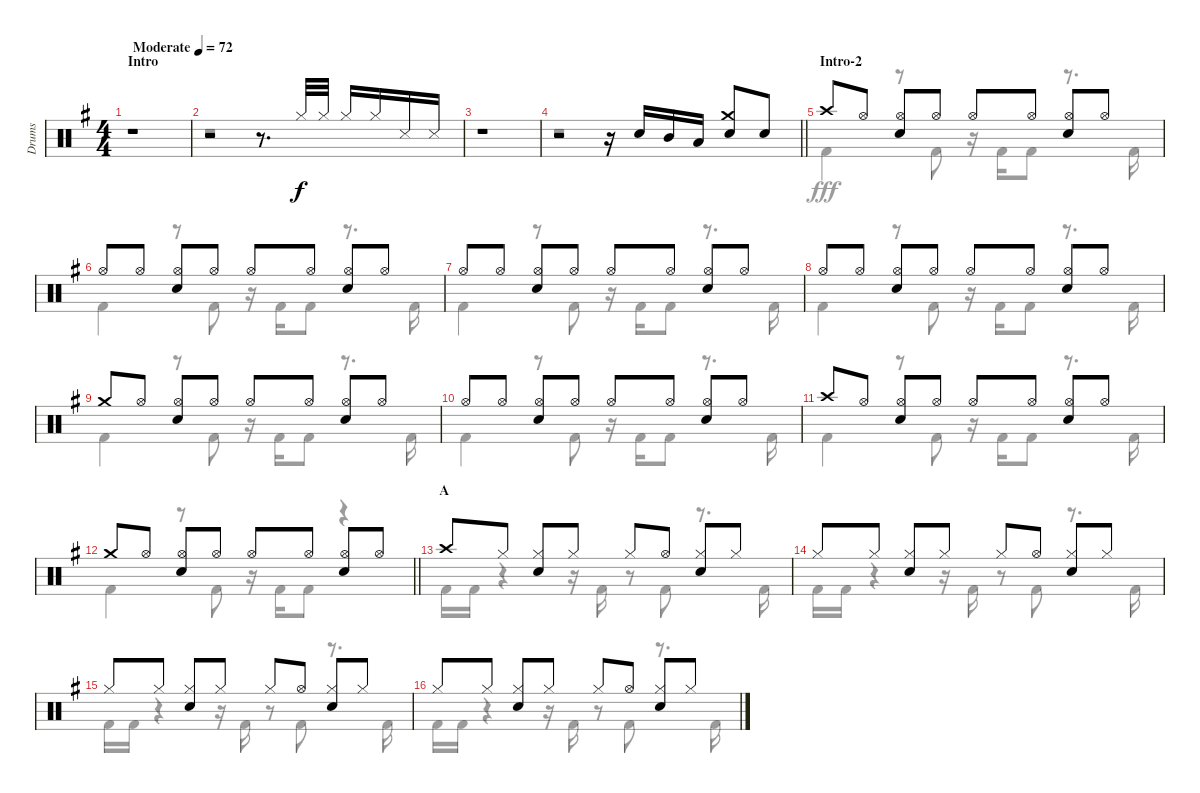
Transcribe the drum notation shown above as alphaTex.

\track ("Drums" "Drums") {instrument percussion}
\staff {score}
\articulation defaults
\voice
\ts (4 4)
\section ("" "Intro")
\tempo (72 "Moderate")
\clef neutral
\ks g
r.1{dy f} |
r.2 r.8{d} "Hi-Hat (closed)".32 "Hi-Hat (closed)".32 "Hi-Hat (closed)".16 "Hi-Hat (closed)".16 "Snare (side stick) 3".16 "Snare (side stick) 3".16 |
r.1 |
\barLineRight lightlight
r.2 r.16 "Snare (hit) 2".16 "Mid Tom (hit)".16 "Low Tom (hit)".16 ("Crash medium (hit)" "Snare (hit) 2").8 "Snare (hit) 2".8 |
\section ("" "Intro-2")
"Crash high (hit)".8 "Hi-Hat (open)".8 ("Hi-Hat (open)" "Snare (hit) 2").8 "Hi-Hat (open)".8 "Hi-Hat (open)".8 "Hi-Hat (open)".8 ("Hi-Hat (open)" "Snare (hit) 2").8 "Hi-Hat (open)".8 |
"Hi-Hat (open)".8 "Hi-Hat (open)".8 ("Hi-Hat (open)" "Snare (hit) 2").8 "Hi-Hat (open)".8 "Hi-Hat (open)".8 "Hi-Hat (open)".8 ("Hi-Hat (open)" "Snare (hit) 2").8 "Hi-Hat (open)".8 |
"Hi-Hat (open)".8 "Hi-Hat (open)".8 ("Hi-Hat (open)" "Snare (hit) 2").8 "Hi-Hat (open)".8 "Hi-Hat (open)".8 "Hi-Hat (open)".8 ("Hi-Hat (open)" "Snare (hit) 2").8 "Hi-Hat (open)".8 |
"Hi-Hat (open)".8 "Hi-Hat (open)".8 ("Hi-Hat (open)" "Snare (hit) 2").8 "Hi-Hat (open)".8 "Hi-Hat (open)".8 "Hi-Hat (open)".8 ("Hi-Hat (open)" "Snare (hit) 2").8 "Hi-Hat (open)".8 |
"Crash medium (hit)".8 "Hi-Hat (open)".8 ("Hi-Hat (open)" "Snare (hit) 2").8 "Hi-Hat (open)".8 "Hi-Hat (open)".8 "Hi-Hat (open)".8 ("Hi-Hat (open)" "Snare (hit) 2").8 "Hi-Hat (open)".8 |
"Hi-Hat (open)".8 "Hi-Hat (open)".8 ("Hi-Hat (open)" "Snare (hit) 2").8 "Hi-Hat (open)".8 "Hi-Hat (open)".8 "Hi-Hat (open)".8 ("Hi-Hat (open)" "Snare (hit) 2").8 "Hi-Hat (open)".8 |
"Crash high (hit)".8 "Hi-Hat (open)".8 ("Hi-Hat (open)" "Snare (hit) 2").8 "Hi-Hat (open)".8 "Hi-Hat (open)".8 "Hi-Hat (open)".8 ("Hi-Hat (open)" "Snare (hit) 2").8 "Hi-Hat (open)".8 |
\barLineRight lightlight "Crash medium (hit)".8 "Hi-Hat (open)".8
("Hi-Hat (open)" "Snare (hit) 2").8 "Hi-Hat (open)".8 "Hi-Hat (open)".8 "Hi-Hat (open)".8 ("Hi-Hat (open)" "Snare (hit) 2").8 "Hi-Hat (open)".8 |
\section ("" "A")
"Crash high (hit)".8 "Hi-Hat (closed)".8 ("Hi-Hat (closed)" "Snare (hit) 2").8 "Hi-Hat (closed)".8 "Hi-Hat (closed)".8 "Hi-Hat (open)".8 ("Hi-Hat (closed)" "Snare (hit) 2").8 "Hi-Hat (closed)".8 |
"Hi-Hat (closed)".8 "Hi-Hat (closed)".8 ("Hi-Hat (closed)" "Snare (hit) 2").8 "Hi-Hat (closed)".8 "Hi-Hat (closed)".8 "Hi-Hat (open)".8 ("Hi-Hat (closed)" "Snare (hit) 2").8 "Hi-Hat (closed)".8 |
"Hi-Hat (closed)".8 "Hi-Hat (closed)".8 ("Hi-Hat (closed)" "Snare (hit) 2").8 "Hi-Hat (closed)".8 "Hi-Hat (closed)".8 "Hi-Hat (open)".8 ("Hi-Hat (closed)" "Snare (hit) 2").8 "Hi-Hat (closed)".8 |
"Hi-Hat (closed)".8 "Hi-Hat (closed)".8 ("Hi-Hat (closed)" "Snare (hit) 2").8 "Hi-Hat (closed)".8 "Hi-Hat (closed)".8 "Hi-Hat (open)".8 ("Hi-Hat (closed)" "Snare (hit) 2").8 "Hi-Hat (closed)".8
\voice
\clef neutral
\ottava regular
\simile none
\ks g
r.1{dy fff} |
r.1 |
r.1 |
\barLineRight lightlight
r.1 |
"Kick (hit) 2".4 r.8 "Kick (hit) 2".8 r.16 "Kick (hit) 2".16 "Kick (hit) 2".8 r.8{d} "Kick (hit) 2".16 |
"Kick (hit) 2".4 r.8 "Kick (hit) 2".8 r.16 "Kick (hit) 2".16 "Kick (hit) 2".8 r.8{d} "Kick (hit) 2".16 |
"Kick (hit) 2".4 r.8 "Kick (hit) 2".8 r.16 "Kick (hit) 2".16 "Kick (hit) 2".8 r.8{d} "Kick (hit) 2".16 |
"Kick (hit) 2".4 r.8 "Kick (hit) 2".8 r.16 "Kick (hit) 2".16 "Kick (hit) 2".8 r.8{d} "Kick (hit) 2".16 |
"Kick (hit) 2".4 r.8 "Kick (hit) 2".8 r.16 "Kick (hit) 2".16 "Kick (hit) 2".8 r.8{d} "Kick (hit) 2".16 |
"Kick (hit) 2".4 r.8 "Kick (hit) 2".8 r.16 "Kick (hit) 2".16 "Kick (hit) 2".8 r.8{d} "Kick (hit) 2".16 |
"Kick (hit) 2".4 r.8 "Kick (hit) 2".8 r.16 "Kick (hit) 2".16 "Kick (hit) 2".8 r.8{d} "Kick (hit) 2".16 |
\barLineRight lightlight "Kick (hit) 2".4
r.8 "Kick (hit) 2".8 r.16 "Kick (hit) 2".16 "Kick (hit) 2".8 r.4 |
"Kick (hit) 2".16 "Kick (hit) 2".16 r.4 r.16 "Kick (hit) 2".16 r.8 "Kick (hit) 2".8 r.8{d} "Kick (hit) 2".16 |
"Kick (hit) 2".16 "Kick (hit) 2".16 r.4 r.16 "Kick (hit) 2".16 r.8 "Kick (hit) 2".8 r.8{d} "Kick (hit) 2".16 |
"Kick (hit) 2".16 "Kick (hit) 2".16 r.4 r.16 "Kick (hit) 2".16 r.8 "Kick (hit) 2".8 r.8{d} "Kick (hit) 2".16 |
"Kick (hit) 2".16 "Kick (hit) 2".16 r.4 r.16 "Kick (hit) 2".16 r.8 "Kick (hit) 2".8 r.8{d} "Kick (hit) 2".16
